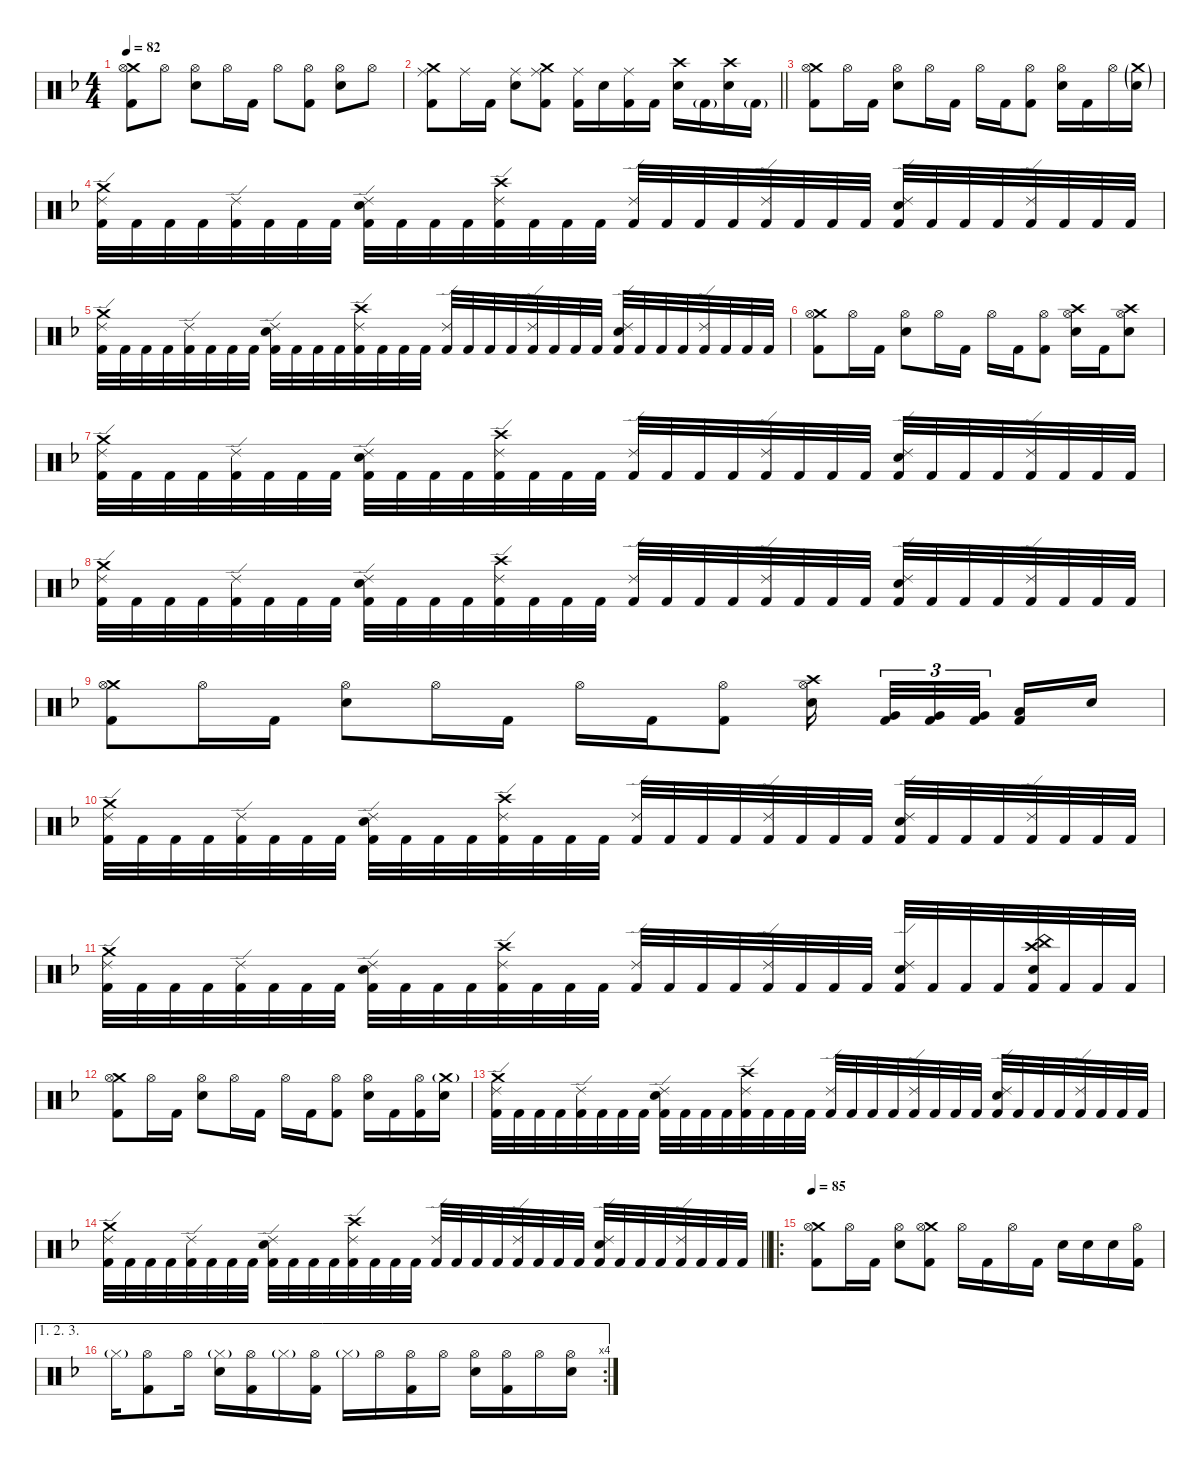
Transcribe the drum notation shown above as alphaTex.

\defaultSystemsLayout 4
\hideDynamics
\bracketExtendMode nobrackets
\singleTrackTrackNamePolicy hidden
\multiTrackTrackNamePolicy hidden
\firstSystemTrackNameMode fullname
\firstSystemTrackNameOrientation horizontal
\otherSystemsTrackNameOrientation horizontal
\track ("Martin Lopez - Drums" "drm.") {instrument percussion}
\staff {score}
\articulation defaults
\ts (4 4)
\tempo 82
\clef neutral
\ks f
("Crash medium (hit)"{acc forcenatural} "Hi-Hat (open)"{acc forcenatural} "Kick (hit) 2"{acc forcenatural}).8{dy f beam Down} "Hi-Hat (open)"{acc forcenatural}.8{beam Down} ("Hi-Hat (open)"{acc forcenatural} "Snare (hit) 2"{acc forcenatural}).8{beam Down} "Hi-Hat (open)"{acc forcenatural}.16{beam Down} "Kick (hit) 2"{acc forcenatural}.16{beam Down} "Hi-Hat (open)"{acc forcenatural}.8{beam Down} ("Hi-Hat (open)"{acc forcenatural} "Kick (hit) 2"{acc forcenatural}).8{beam Down} ("Hi-Hat (open)"{acc forcenatural} "Snare (hit) 2"{acc forcenatural}).8{beam Down} "Hi-Hat (open)"{acc forcenatural}.8{beam Down} |
\barLineRight lightlight
("Crash medium (hit)"{acc forcenatural} "Ride (middle)"{acc forcenatural} "Kick (hit) 2"{acc forcenatural}).8{beam Down} "Ride (middle)"{acc forcenatural}.16{beam Down} "Kick (hit) 2"{acc forcenatural}.16{beam Down} ("Ride (middle)"{acc forcenatural} "Snare (hit) 2"{acc forcenatural}).8{beam Down} ("Crash medium (hit)"{acc forcenatural} "Ride (middle)"{acc forcenatural} "Kick (hit) 2"{acc forcenatural}).8{beam Down} ("Ride (middle)"{acc forcenatural} "Kick (hit) 2"{acc forcenatural}).16{beam Down} "Snare (hit) 2"{acc forcenatural}.16{beam Down} ("Ride (middle)"{acc forcenatural} "Kick (hit) 2"{acc forcenatural}).16{beam Down} "Kick (hit) 2"{acc forcenatural}.16{beam Down} ("Crash high (hit)"{acc forcenatural} "Snare (hit) 2"{acc forcenatural}).16{beam Down} "Kick (hit) 2"{g acc forcenatural}.16{dy mf beam Down} ("Crash high (hit)"{acc forcenatural} "Snare (hit) 2"{acc forcenatural}).16{dy f beam Down} "Kick (hit) 2"{g acc forcenatural}.16{dy mf beam Down} |
("Crash medium (hit)"{acc forcenatural} "Hi-Hat (open)"{acc forcenatural} "Kick (hit) 2"{acc forcenatural}).8{dy f beam Down} "Hi-Hat (open)"{acc forcenatural}.16{beam Down} "Kick (hit) 2"{acc forcenatural}.16{beam Down} ("Hi-Hat (open)"{acc forcenatural} "Snare (hit) 2"{acc forcenatural}).8{beam Down} "Hi-Hat (open)"{acc forcenatural}.16{beam Down} "Kick (hit) 2"{acc forcenatural}.16{beam Down} "Hi-Hat (open)"{acc forcenatural}.16{beam Down} "Kick (hit) 2"{acc forcenatural}.16{beam Down} ("Hi-Hat (open)"{acc forcenatural} "Kick (hit) 2"{acc forcenatural}).8{beam Down} ("Hi-Hat (open)"{acc forcenatural} "Snare (hit) 2"{acc forcenatural}).16{beam Down} "Kick (hit) 2"{acc forcenatural}.16{beam Down} "Hi-Hat (open)"{acc forcenatural}.16{beam Down} ("Crash medium (hit)"{g acc forcenatural} "Snare (hit) 2"{g acc forcenatural}).16{dy mf beam Down} |
("Crash medium (hit)"{acc forcenatural} "Ride (edge) 2"{acc forcenatural} "Kick (hit) 2"{acc forcenatural}).32{dy f beam Down} "Kick (hit) 2"{acc forcenatural}.32{beam Down} "Kick (hit) 2"{acc forcenatural}.32{beam Down} "Kick (hit) 2"{acc forcenatural}.32{beam Down} ("Ride (edge) 2"{acc forcenatural} "Kick (hit) 2"{acc forcenatural}).32{beam Down} "Kick (hit) 2"{acc forcenatural}.32{beam Down} "Kick (hit) 2"{acc forcenatural}.32{beam Down} "Kick (hit) 2"{acc forcenatural}.32{beam Down} ("Ride (edge) 2"{acc forcenatural} "Snare (hit) 2"{acc forcenatural} "Kick (hit) 2"{acc forcenatural}).32{beam Down} "Kick (hit) 2"{acc forcenatural}.32{beam Down} "Kick (hit) 2"{acc forcenatural}.32{beam Down} "Kick (hit) 2"{acc forcenatural}.32{beam Down} ("Crash high (hit)"{acc forcenatural} "Ride (edge) 2"{acc forcenatural} "Kick (hit) 2"{acc forcenatural}).32{beam Down} "Kick (hit) 2"{acc forcenatural}.32{beam Down} "Kick (hit) 2"{acc forcenatural}.32{beam Down} "Kick (hit) 2"{acc forcenatural}.32{beam Down} ("Ride (edge) 2"{acc forcenatural} "Kick (hit) 2"{acc forcenatural}).32{beam Up} "Kick (hit) 2"{acc forcenatural}.32{beam Up} "Kick (hit) 2"{acc forcenatural}.32{beam Up} "Kick (hit) 2"{acc forcenatural}.32{beam Up} ("Ride (edge) 2"{acc forcenatural} "Kick (hit) 2"{acc forcenatural}).32{beam Up} "Kick (hit) 2"{acc forcenatural}.32{beam Up} "Kick (hit) 2"{acc forcenatural}.32{beam Up} "Kick (hit) 2"{acc forcenatural}.32{beam Up} ("Ride (edge) 2"{acc forcenatural} "Snare (hit) 2"{acc forcenatural} "Kick (hit) 2"{acc forcenatural}).32{beam Up} "Kick (hit) 2"{acc forcenatural}.32{beam Up} "Kick (hit) 2"{acc forcenatural}.32{beam Up} "Kick (hit) 2"{acc forcenatural}.32{beam Up} ("Ride (edge) 2"{acc forcenatural} "Kick (hit) 2"{acc forcenatural}).32{beam Up} "Kick (hit) 2"{acc forcenatural}.32{beam Up} "Kick (hit) 2"{acc forcenatural}.32{beam Up} "Kick (hit) 2"{acc forcenatural}.32{beam Up} |
("Crash medium (hit)"{acc forcenatural} "Ride (edge) 2"{acc forcenatural} "Kick (hit) 2"{acc forcenatural}).32{beam Down} "Kick (hit) 2"{acc forcenatural}.32{beam Down} "Kick (hit) 2"{acc forcenatural}.32{beam Down} "Kick (hit) 2"{acc forcenatural}.32{beam Down} ("Ride (edge) 2"{acc forcenatural} "Kick (hit) 2"{acc forcenatural}).32{beam Down} "Kick (hit) 2"{acc forcenatural}.32{beam Down} "Kick (hit) 2"{acc forcenatural}.32{beam Down} "Kick (hit) 2"{acc forcenatural}.32{beam Down} ("Ride (edge) 2"{acc forcenatural} "Snare (hit) 2"{acc forcenatural} "Kick (hit) 2"{acc forcenatural}).32{beam Down} "Kick (hit) 2"{acc forcenatural}.32{beam Down} "Kick (hit) 2"{acc forcenatural}.32{beam Down} "Kick (hit) 2"{acc forcenatural}.32{beam Down} ("Crash high (hit)"{acc forcenatural} "Ride (edge) 2"{acc forcenatural} "Kick (hit) 2"{acc forcenatural}).32{beam Down} "Kick (hit) 2"{acc forcenatural}.32{beam Down} "Kick (hit) 2"{acc forcenatural}.32{beam Down} "Kick (hit) 2"{acc forcenatural}.32{beam Down} ("Ride (edge) 2"{acc forcenatural} "Kick (hit) 2"{acc forcenatural}).32{beam Up} "Kick (hit) 2"{acc forcenatural}.32{beam Up} "Kick (hit) 2"{acc forcenatural}.32{beam Up} "Kick (hit) 2"{acc forcenatural}.32{beam Up} ("Ride (edge) 2"{acc forcenatural} "Kick (hit) 2"{acc forcenatural}).32{beam Up} "Kick (hit) 2"{acc forcenatural}.32{beam Up} "Kick (hit) 2"{acc forcenatural}.32{beam Up} "Kick (hit) 2"{acc forcenatural}.32{beam Up} ("Ride (edge) 2"{acc forcenatural} "Snare (hit) 2"{acc forcenatural} "Kick (hit) 2"{acc forcenatural}).32{beam Up} "Kick (hit) 2"{acc forcenatural}.32{beam Up} "Kick (hit) 2"{acc forcenatural}.32{beam Up} "Kick (hit) 2"{acc forcenatural}.32{beam Up} ("Ride (edge) 2"{acc forcenatural} "Kick (hit) 2"{acc forcenatural}).32{beam Up} "Kick (hit) 2"{acc forcenatural}.32{beam Up} "Kick (hit) 2"{acc forcenatural}.32{beam Up} "Kick (hit) 2"{acc forcenatural}.32{beam Up} |
("Crash medium (hit)"{acc forcenatural} "Hi-Hat (open)"{acc forcenatural} "Kick (hit) 2"{acc forcenatural}).8{beam Down} "Hi-Hat (open)"{acc forcenatural}.16{beam Down} "Kick (hit) 2"{acc forcenatural}.16{beam Down} ("Hi-Hat (open)"{acc forcenatural} "Snare (hit) 2"{acc forcenatural}).8{beam Down} "Hi-Hat (open)"{acc forcenatural}.16{beam Down} "Kick (hit) 2"{acc forcenatural}.16{beam Down} "Hi-Hat (open)"{acc forcenatural}.16{beam Down} "Kick (hit) 2"{acc forcenatural}.16{beam Down} ("Hi-Hat (open)"{acc forcenatural} "Kick (hit) 2"{acc forcenatural}).8{beam Down} ("Crash high (hit)"{acc forcenatural} "Hi-Hat (open)"{acc forcenatural} "Snare (hit) 2"{acc forcenatural}).16{beam Down} "Kick (hit) 2"{acc forcenatural}.16{beam Down} ("Crash high (hit)"{acc forcenatural} "Hi-Hat (open)"{acc forcenatural} "Snare (hit) 2"{acc forcenatural}).8{beam Down} |
("Crash medium (hit)"{acc forcenatural} "Ride (edge) 2"{acc forcenatural} "Kick (hit) 2"{acc forcenatural}).32{beam Down} "Kick (hit) 2"{acc forcenatural}.32{beam Down} "Kick (hit) 2"{acc forcenatural}.32{beam Down} "Kick (hit) 2"{acc forcenatural}.32{beam Down} ("Ride (edge) 2"{acc forcenatural} "Kick (hit) 2"{acc forcenatural}).32{beam Down} "Kick (hit) 2"{acc forcenatural}.32{beam Down} "Kick (hit) 2"{acc forcenatural}.32{beam Down} "Kick (hit) 2"{acc forcenatural}.32{beam Down} ("Ride (edge) 2"{acc forcenatural} "Snare (hit) 2"{acc forcenatural} "Kick (hit) 2"{acc forcenatural}).32{beam Down} "Kick (hit) 2"{acc forcenatural}.32{beam Down} "Kick (hit) 2"{acc forcenatural}.32{beam Down} "Kick (hit) 2"{acc forcenatural}.32{beam Down} ("Crash high (hit)"{acc forcenatural} "Ride (edge) 2"{acc forcenatural} "Kick (hit) 2"{acc forcenatural}).32{beam Down} "Kick (hit) 2"{acc forcenatural}.32{beam Down} "Kick (hit) 2"{acc forcenatural}.32{beam Down} "Kick (hit) 2"{acc forcenatural}.32{beam Down} ("Ride (edge) 2"{acc forcenatural} "Kick (hit) 2"{acc forcenatural}).32{beam Up} "Kick (hit) 2"{acc forcenatural}.32{beam Up} "Kick (hit) 2"{acc forcenatural}.32{beam Up} "Kick (hit) 2"{acc forcenatural}.32{beam Up} ("Ride (edge) 2"{acc forcenatural} "Kick (hit) 2"{acc forcenatural}).32{beam Up} "Kick (hit) 2"{acc forcenatural}.32{beam Up} "Kick (hit) 2"{acc forcenatural}.32{beam Up} "Kick (hit) 2"{acc forcenatural}.32{beam Up} ("Ride (edge) 2"{acc forcenatural} "Snare (hit) 2"{acc forcenatural} "Kick (hit) 2"{acc forcenatural}).32{beam Up} "Kick (hit) 2"{acc forcenatural}.32{beam Up} "Kick (hit) 2"{acc forcenatural}.32{beam Up} "Kick (hit) 2"{acc forcenatural}.32{beam Up} ("Ride (edge) 2"{acc forcenatural} "Kick (hit) 2"{acc forcenatural}).32{beam Up} "Kick (hit) 2"{acc forcenatural}.32{beam Up} "Kick (hit) 2"{acc forcenatural}.32{beam Up} "Kick (hit) 2"{acc forcenatural}.32{beam Up} |
("Crash medium (hit)"{acc forcenatural} "Ride (edge) 2"{acc forcenatural} "Kick (hit) 2"{acc forcenatural}).32{beam Down} "Kick (hit) 2"{acc forcenatural}.32{beam Down} "Kick (hit) 2"{acc forcenatural}.32{beam Down} "Kick (hit) 2"{acc forcenatural}.32{beam Down} ("Ride (edge) 2"{acc forcenatural} "Kick (hit) 2"{acc forcenatural}).32{beam Down} "Kick (hit) 2"{acc forcenatural}.32{beam Down} "Kick (hit) 2"{acc forcenatural}.32{beam Down} "Kick (hit) 2"{acc forcenatural}.32{beam Down} ("Ride (edge) 2"{acc forcenatural} "Snare (hit) 2"{acc forcenatural} "Kick (hit) 2"{acc forcenatural}).32{beam Down} "Kick (hit) 2"{acc forcenatural}.32{beam Down} "Kick (hit) 2"{acc forcenatural}.32{beam Down} "Kick (hit) 2"{acc forcenatural}.32{beam Down} ("Crash high (hit)"{acc forcenatural} "Ride (edge) 2"{acc forcenatural} "Kick (hit) 2"{acc forcenatural}).32{beam Down} "Kick (hit) 2"{acc forcenatural}.32{beam Down} "Kick (hit) 2"{acc forcenatural}.32{beam Down} "Kick (hit) 2"{acc forcenatural}.32{beam Down} ("Ride (edge) 2"{acc forcenatural} "Kick (hit) 2"{acc forcenatural}).32{beam Up} "Kick (hit) 2"{acc forcenatural}.32{beam Up} "Kick (hit) 2"{acc forcenatural}.32{beam Up} "Kick (hit) 2"{acc forcenatural}.32{beam Up} ("Ride (edge) 2"{acc forcenatural} "Kick (hit) 2"{acc forcenatural}).32{beam Up} "Kick (hit) 2"{acc forcenatural}.32{beam Up} "Kick (hit) 2"{acc forcenatural}.32{beam Up} "Kick (hit) 2"{acc forcenatural}.32{beam Up} ("Ride (edge) 2"{acc forcenatural} "Snare (hit) 2"{acc forcenatural} "Kick (hit) 2"{acc forcenatural}).32{beam Up} "Kick (hit) 2"{acc forcenatural}.32{beam Up} "Kick (hit) 2"{acc forcenatural}.32{beam Up} "Kick (hit) 2"{acc forcenatural}.32{beam Up} ("Ride (edge) 2"{acc forcenatural} "Kick (hit) 2"{acc forcenatural}).32{beam Up} "Kick (hit) 2"{acc forcenatural}.32{beam Up} "Kick (hit) 2"{acc forcenatural}.32{beam Up} "Kick (hit) 2"{acc forcenatural}.32{beam Up} |
("Crash medium (hit)"{acc forcenatural} "Hi-Hat (open)"{acc forcenatural} "Kick (hit) 2"{acc forcenatural}).8{beam Down} "Hi-Hat (open)"{acc forcenatural}.16{beam Down} "Kick (hit) 2"{acc forcenatural}.16{beam Down} ("Hi-Hat (open)"{acc forcenatural} "Snare (hit) 2"{acc forcenatural}).8{beam Down} "Hi-Hat (open)"{acc forcenatural}.16{beam Down} "Kick (hit) 2"{acc forcenatural}.16{beam Down} "Hi-Hat (open)"{acc forcenatural}.16{beam Down} "Kick (hit) 2"{acc forcenatural}.16{beam Down} ("Hi-Hat (open)"{acc forcenatural} "Kick (hit) 2"{acc forcenatural}).8{beam Down} ("Crash high (hit)"{acc forcenatural} "Hi-Hat (open)"{acc forcenatural} "Snare (hit) 2"{acc forcenatural}).16{beam Down} ("Very Low Tom (hit)"{acc forcenatural} "Kick (hit) 2"{acc forcenatural}).32{tu (3 2) beam Up} ("Very Low Tom (hit)"{acc forcenatural} "Kick (hit) 2"{acc forcenatural}).32{tu (3 2) beam Up} ("Very Low Tom (hit)"{acc forcenatural} "Kick (hit) 2"{acc forcenatural}).32{tu (3 2) beam Up} ("Low Floor Tom (hit)"{acc forcenatural} "Kick (hit) 2"{acc forcenatural}).16{beam Up} "Snare (hit) 2"{acc forcenatural}.16{beam Up} |
("Crash medium (hit)"{acc forcenatural} "Ride (edge) 2"{acc forcenatural} "Kick (hit) 2"{acc forcenatural}).32{beam Down} "Kick (hit) 2"{acc forcenatural}.32{beam Down} "Kick (hit) 2"{acc forcenatural}.32{beam Down} "Kick (hit) 2"{acc forcenatural}.32{beam Down} ("Ride (edge) 2"{acc forcenatural} "Kick (hit) 2"{acc forcenatural}).32{beam Down} "Kick (hit) 2"{acc forcenatural}.32{beam Down} "Kick (hit) 2"{acc forcenatural}.32{beam Down} "Kick (hit) 2"{acc forcenatural}.32{beam Down} ("Ride (edge) 2"{acc forcenatural} "Snare (hit) 2"{acc forcenatural} "Kick (hit) 2"{acc forcenatural}).32{beam Down} "Kick (hit) 2"{acc forcenatural}.32{beam Down} "Kick (hit) 2"{acc forcenatural}.32{beam Down} "Kick (hit) 2"{acc forcenatural}.32{beam Down} ("Crash high (hit)"{acc forcenatural} "Ride (edge) 2"{acc forcenatural} "Kick (hit) 2"{acc forcenatural}).32{beam Down} "Kick (hit) 2"{acc forcenatural}.32{beam Down} "Kick (hit) 2"{acc forcenatural}.32{beam Down} "Kick (hit) 2"{acc forcenatural}.32{beam Down} ("Ride (edge) 2"{acc forcenatural} "Kick (hit) 2"{acc forcenatural}).32{beam Up} "Kick (hit) 2"{acc forcenatural}.32{beam Up} "Kick (hit) 2"{acc forcenatural}.32{beam Up} "Kick (hit) 2"{acc forcenatural}.32{beam Up} ("Ride (edge) 2"{acc forcenatural} "Kick (hit) 2"{acc forcenatural}).32{beam Up} "Kick (hit) 2"{acc forcenatural}.32{beam Up} "Kick (hit) 2"{acc forcenatural}.32{beam Up} "Kick (hit) 2"{acc forcenatural}.32{beam Up} ("Ride (edge) 2"{acc forcenatural} "Snare (hit) 2"{acc forcenatural} "Kick (hit) 2"{acc forcenatural}).32{beam Up} "Kick (hit) 2"{acc forcenatural}.32{beam Up} "Kick (hit) 2"{acc forcenatural}.32{beam Up} "Kick (hit) 2"{acc forcenatural}.32{beam Up} ("Ride (edge) 2"{acc forcenatural} "Kick (hit) 2"{acc forcenatural}).32{beam Up} "Kick (hit) 2"{acc forcenatural}.32{beam Up} "Kick (hit) 2"{acc forcenatural}.32{beam Up} "Kick (hit) 2"{acc forcenatural}.32{beam Up} |
("Crash medium (hit)"{acc forcenatural} "Ride (edge) 2"{acc forcenatural} "Kick (hit) 2"{acc forcenatural}).32{beam Down} "Kick (hit) 2"{acc forcenatural}.32{beam Down} "Kick (hit) 2"{acc forcenatural}.32{beam Down} "Kick (hit) 2"{acc forcenatural}.32{beam Down} ("Ride (edge) 2"{acc forcenatural} "Kick (hit) 2"{acc forcenatural}).32{beam Down} "Kick (hit) 2"{acc forcenatural}.32{beam Down} "Kick (hit) 2"{acc forcenatural}.32{beam Down} "Kick (hit) 2"{acc forcenatural}.32{beam Down} ("Ride (edge) 2"{acc forcenatural} "Snare (hit) 2"{acc forcenatural} "Kick (hit) 2"{acc forcenatural}).32{beam Down} "Kick (hit) 2"{acc forcenatural}.32{beam Down} "Kick (hit) 2"{acc forcenatural}.32{beam Down} "Kick (hit) 2"{acc forcenatural}.32{beam Down} ("Crash high (hit)"{acc forcenatural} "Ride (edge) 2"{acc forcenatural} "Kick (hit) 2"{acc forcenatural}).32{beam Down} "Kick (hit) 2"{acc forcenatural}.32{beam Down} "Kick (hit) 2"{acc forcenatural}.32{beam Down} "Kick (hit) 2"{acc forcenatural}.32{beam Down} ("Ride (edge) 2"{acc forcenatural} "Kick (hit) 2"{acc forcenatural}).32{beam Up} "Kick (hit) 2"{acc forcenatural}.32{beam Up} "Kick (hit) 2"{acc forcenatural}.32{beam Up} "Kick (hit) 2"{acc forcenatural}.32{beam Up} ("Ride (edge) 2"{acc forcenatural} "Kick (hit) 2"{acc forcenatural}).32{beam Up} "Kick (hit) 2"{acc forcenatural}.32{beam Up} "Kick (hit) 2"{acc forcenatural}.32{beam Up} "Kick (hit) 2"{acc forcenatural}.32{beam Up} ("Ride (edge) 2"{acc forcenatural} "Snare (hit) 2"{acc forcenatural} "Kick (hit) 2"{acc forcenatural}).32{beam Up} "Kick (hit) 2"{acc forcenatural}.32{beam Up} "Kick (hit) 2"{acc forcenatural}.32{beam Up} "Kick (hit) 2"{acc forcenatural}.32{beam Up} ("Crash high (hit)"{acc forcenatural} "China (hit)"{acc forcenatural} "Snare (hit) 2"{acc forcenatural} "Kick (hit) 2"{acc forcenatural}).32{beam Up} "Kick (hit) 2"{acc forcenatural}.32{beam Up} "Kick (hit) 2"{acc forcenatural}.32{beam Up} "Kick (hit) 2"{acc forcenatural}.32{beam Up} |
("Crash medium (hit)"{acc forcenatural} "Hi-Hat (open)"{acc forcenatural} "Kick (hit) 2"{acc forcenatural}).8{beam Down} "Hi-Hat (open)"{acc forcenatural}.16{beam Down} "Kick (hit) 2"{acc forcenatural}.16{beam Down} ("Hi-Hat (open)"{acc forcenatural} "Snare (hit) 2"{acc forcenatural}).8{beam Down} "Hi-Hat (open)"{acc forcenatural}.16{beam Down} "Kick (hit) 2"{acc forcenatural}.16{beam Down} "Hi-Hat (open)"{acc forcenatural}.16{beam Down} "Kick (hit) 2"{acc forcenatural}.16{beam Down} ("Hi-Hat (open)"{acc forcenatural} "Kick (hit) 2"{acc forcenatural}).8{beam Down} ("Hi-Hat (open)"{acc forcenatural} "Snare (hit) 2"{acc forcenatural}).16{beam Down} "Kick (hit) 2"{acc forcenatural}.16{beam Down} ("Hi-Hat (open)"{acc forcenatural} "Kick (hit) 2"{acc forcenatural}).16{beam Down} ("Crash medium (hit)"{g acc forcenatural} "Snare (hit) 2"{acc forcenatural}).16{beam Down} |
("Crash medium (hit)"{acc forcenatural} "Ride (edge) 2"{acc forcenatural} "Kick (hit) 2"{acc forcenatural}).32{beam Down} "Kick (hit) 2"{acc forcenatural}.32{beam Down} "Kick (hit) 2"{acc forcenatural}.32{beam Down} "Kick (hit) 2"{acc forcenatural}.32{beam Down} ("Ride (edge) 2"{acc forcenatural} "Kick (hit) 2"{acc forcenatural}).32{beam Down} "Kick (hit) 2"{acc forcenatural}.32{beam Down} "Kick (hit) 2"{acc forcenatural}.32{beam Down} "Kick (hit) 2"{acc forcenatural}.32{beam Down} ("Ride (edge) 2"{acc forcenatural} "Snare (hit) 2"{acc forcenatural} "Kick (hit) 2"{acc forcenatural}).32{beam Down} "Kick (hit) 2"{acc forcenatural}.32{beam Down} "Kick (hit) 2"{acc forcenatural}.32{beam Down} "Kick (hit) 2"{acc forcenatural}.32{beam Down} ("Crash high (hit)"{acc forcenatural} "Ride (edge) 2"{acc forcenatural} "Kick (hit) 2"{acc forcenatural}).32{beam Down} "Kick (hit) 2"{acc forcenatural}.32{beam Down} "Kick (hit) 2"{acc forcenatural}.32{beam Down} "Kick (hit) 2"{acc forcenatural}.32{beam Down} ("Ride (edge) 2"{acc forcenatural} "Kick (hit) 2"{acc forcenatural}).32{beam Up} "Kick (hit) 2"{acc forcenatural}.32{beam Up} "Kick (hit) 2"{acc forcenatural}.32{beam Up} "Kick (hit) 2"{acc forcenatural}.32{beam Up} ("Ride (edge) 2"{acc forcenatural} "Kick (hit) 2"{acc forcenatural}).32{beam Up} "Kick (hit) 2"{acc forcenatural}.32{beam Up} "Kick (hit) 2"{acc forcenatural}.32{beam Up} "Kick (hit) 2"{acc forcenatural}.32{beam Up} ("Ride (edge) 2"{acc forcenatural} "Snare (hit) 2"{acc forcenatural} "Kick (hit) 2"{acc forcenatural}).32{beam Up} "Kick (hit) 2"{acc forcenatural}.32{beam Up} "Kick (hit) 2"{acc forcenatural}.32{beam Up} "Kick (hit) 2"{acc forcenatural}.32{beam Up} ("Ride (edge) 2"{acc forcenatural} "Kick (hit) 2"{acc forcenatural}).32{beam Up} "Kick (hit) 2"{acc forcenatural}.32{beam Up} "Kick (hit) 2"{acc forcenatural}.32{beam Up} "Kick (hit) 2"{acc forcenatural}.32{beam Up} |
\barLineRight lightlight
("Crash medium (hit)"{acc forcenatural} "Ride (edge) 2"{acc forcenatural} "Kick (hit) 2"{acc forcenatural}).32{beam Down} "Kick (hit) 2"{acc forcenatural}.32{beam Down} "Kick (hit) 2"{acc forcenatural}.32{beam Down} "Kick (hit) 2"{acc forcenatural}.32{beam Down} ("Ride (edge) 2"{acc forcenatural} "Kick (hit) 2"{acc forcenatural}).32{beam Down} "Kick (hit) 2"{acc forcenatural}.32{beam Down} "Kick (hit) 2"{acc forcenatural}.32{beam Down} "Kick (hit) 2"{acc forcenatural}.32{beam Down} ("Ride (edge) 2"{acc forcenatural} "Snare (hit) 2"{acc forcenatural} "Kick (hit) 2"{acc forcenatural}).32{beam Down} "Kick (hit) 2"{acc forcenatural}.32{beam Down} "Kick (hit) 2"{acc forcenatural}.32{beam Down} "Kick (hit) 2"{acc forcenatural}.32{beam Down} ("Crash high (hit)"{acc forcenatural} "Ride (edge) 2"{acc forcenatural} "Kick (hit) 2"{acc forcenatural}).32{beam Down} "Kick (hit) 2"{acc forcenatural}.32{beam Down} "Kick (hit) 2"{acc forcenatural}.32{beam Down} "Kick (hit) 2"{acc forcenatural}.32{beam Down} ("Ride (edge) 2"{acc forcenatural} "Kick (hit) 2"{acc forcenatural}).32{beam Up} "Kick (hit) 2"{acc forcenatural}.32{beam Up} "Kick (hit) 2"{acc forcenatural}.32{beam Up} "Kick (hit) 2"{acc forcenatural}.32{beam Up} ("Ride (edge) 2"{acc forcenatural} "Kick (hit) 2"{acc forcenatural}).32{beam Up} "Kick (hit) 2"{acc forcenatural}.32{beam Up} "Kick (hit) 2"{acc forcenatural}.32{beam Up} "Kick (hit) 2"{acc forcenatural}.32{beam Up} ("Ride (edge) 2"{acc forcenatural} "Snare (hit) 2"{acc forcenatural} "Kick (hit) 2"{acc forcenatural}).32{beam Up} "Kick (hit) 2"{acc forcenatural}.32{beam Up} "Kick (hit) 2"{acc forcenatural}.32{beam Up} "Kick (hit) 2"{acc forcenatural}.32{beam Up} ("Ride (edge) 2"{acc forcenatural} "Kick (hit) 2"{acc forcenatural}).32{beam Up} "Kick (hit) 2"{acc forcenatural}.32{beam Up} "Kick (hit) 2"{acc forcenatural}.32{beam Up} "Kick (hit) 2"{acc forcenatural}.32{beam Up} |
\ro
\tempo 85
("Crash medium (hit)"{acc forcenatural} "Hi-Hat (open)"{acc forcenatural} "Kick (hit) 2"{acc forcenatural}).8{beam Down} "Hi-Hat (open)"{acc forcenatural}.16{beam Down} "Kick (hit) 2"{acc forcenatural}.16{beam Down} ("Hi-Hat (open)"{acc forcenatural} "Snare (hit) 2"{acc forcenatural}).8{beam Down} ("Crash medium (hit)"{acc forcenatural} "Hi-Hat (open)"{acc forcenatural} "Kick (hit) 2"{acc forcenatural}).8{beam Down} "Hi-Hat (open)"{acc forcenatural}.16{beam Down} "Kick (hit) 2"{acc forcenatural}.16{beam Down} "Hi-Hat (open)"{acc forcenatural}.16{beam Down} "Kick (hit) 2"{acc forcenatural}.16{beam Down} "Snare (hit) 2"{acc forcenatural}.16{beam Down} "Snare (hit) 2"{acc forcenatural}.16{beam Down} "Snare (hit) 2"{acc forcenatural}.16{beam Down} ("Hi-Hat (open)"{acc forcenatural} "Kick (hit) 2"{acc forcenatural}).16{beam Down} |
\ae (1 2 3)
\rc 4 "Hi-Hat (closed)"{g acc forcenatural}.16{dy mf beam Down}
("Hi-Hat (open)"{acc forcenatural} "Kick (hit) 2"{acc forcenatural}).8{dy f beam Down} "Hi-Hat (open)"{acc forcenatural}.16{beam Down} ("Hi-Hat (closed)"{g acc forcenatural} "Snare (hit) 2"{acc forcenatural}).16{beam Down} ("Hi-Hat (open)"{acc forcenatural} "Kick (hit) 2"{acc forcenatural}).16{beam Down} "Hi-Hat (closed)"{g acc forcenatural}.16{dy mf beam Down} ("Hi-Hat (open)"{acc forcenatural} "Kick (hit) 2"{acc forcenatural}).16{dy f beam Down} "Hi-Hat (closed)"{g acc forcenatural}.16{dy mf beam Down} "Hi-Hat (open)"{acc forcenatural}.16{dy f beam Down} ("Hi-Hat (open)"{acc forcenatural} "Kick (hit) 2"{acc forcenatural}).16{beam Down} "Hi-Hat (open)"{acc forcenatural}.16{beam Down} ("Hi-Hat (open)"{acc forcenatural} "Snare (hit) 2"{acc forcenatural}).16{beam Down} ("Hi-Hat (open)"{acc forcenatural} "Kick (hit) 2"{acc forcenatural}).16{beam Down} "Hi-Hat (open)"{acc forcenatural}.16{beam Down} ("Hi-Hat (open)"{acc forcenatural} "Snare (hit) 2"{acc forcenatural}).16{beam Down}
